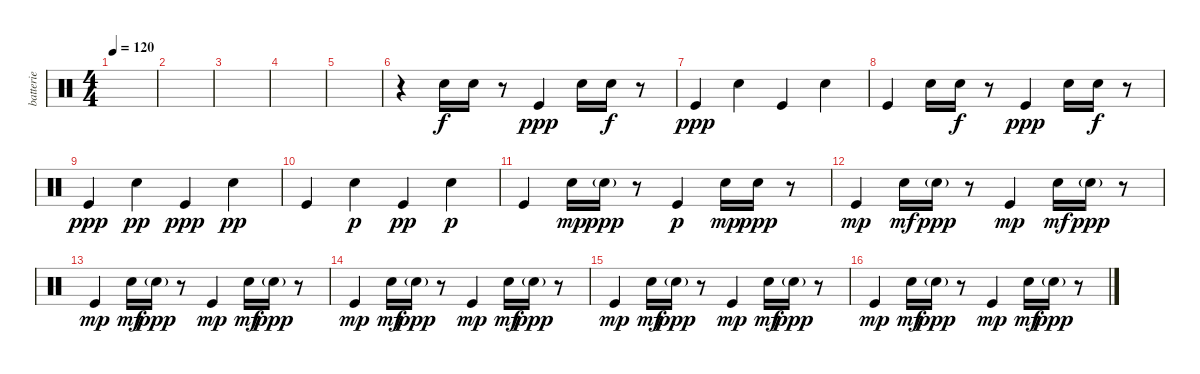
\track ("batterie" "batterie") {instrument percussion}
\staff {score}
\articulation defaults
\ts (4 4)
\tempo 120
\clef neutral
\ks c
|
|
|
|
|
r.4 "Electric Snare (hit)".16 "Electric Snare (hit)"{x}.16{dy f} r.8 "Kick (hit)".4{dy ppp} "Electric Snare (hit)".16 "Electric Snare (hit)"{x}.16{dy f} r.8 |
"Kick (hit)".4{dy ppp} "Electric Snare (hit)".4 "Kick (hit)".4 "Electric Snare (hit)".4 |
"Kick (hit)".4 "Electric Snare (hit)".16 "Electric Snare (hit)"{x}.16{dy f} r.8 "Kick (hit)".4{dy ppp} "Electric Snare (hit)".16 "Electric Snare (hit)"{x}.16{dy f} r.8 |
"Kick (hit)".4{dy ppp} "Electric Snare (hit)".4{dy pp} "Kick (hit)".4{dy ppp} "Electric Snare (hit)".4{dy pp} |
"Kick (hit)".4 "Electric Snare (hit)".4{dy p} "Kick (hit)".4{dy pp} "Electric Snare (hit)".4{dy p} |
"Kick (hit)".4 "Electric Snare (hit)".16{dy mp} "Electric Snare (hit)"{g}.16{dy ppp} r.8 "Kick (hit)".4{dy p} "Electric Snare (hit)".16{dy mp} "Electric Snare (hit)".16{dy ppp} r.8 |
"Kick (hit)".4{dy mp} "Electric Snare (hit)".16{dy mf} "Electric Snare (hit)"{g}.16{dy ppp} r.8 "Kick (hit)".4{dy mp} "Electric Snare (hit)".16{dy mf} "Electric Snare (hit)"{g}.16{dy ppp} r.8 |
"Kick (hit)".4{dy mp} "Electric Snare (hit)".16{dy mf} "Electric Snare (hit)"{g}.16{dy ppp} r.8 "Kick (hit)".4{dy mp} "Electric Snare (hit)".16{dy mf} "Electric Snare (hit)"{g}.16{dy ppp} r.8 |
"Kick (hit)".4{dy mp} "Electric Snare (hit)".16{dy mf} "Electric Snare (hit)"{g}.16{dy ppp} r.8 "Kick (hit)".4{dy mp} "Electric Snare (hit)".16{dy mf} "Electric Snare (hit)"{g}.16{dy ppp} r.8 |
"Kick (hit)".4{dy mp} "Electric Snare (hit)".16{dy mf} "Electric Snare (hit)"{g}.16{dy ppp} r.8 "Kick (hit)".4{dy mp} "Electric Snare (hit)".16{dy mf} "Electric Snare (hit)"{g}.16{dy ppp} r.8 |
"Kick (hit)".4{dy mp} "Electric Snare (hit)".16{dy mf} "Electric Snare (hit)"{g}.16{dy ppp} r.8 "Kick (hit)".4{dy mp} "Electric Snare (hit)".16{dy mf} "Electric Snare (hit)"{g}.16{dy ppp} r.8
